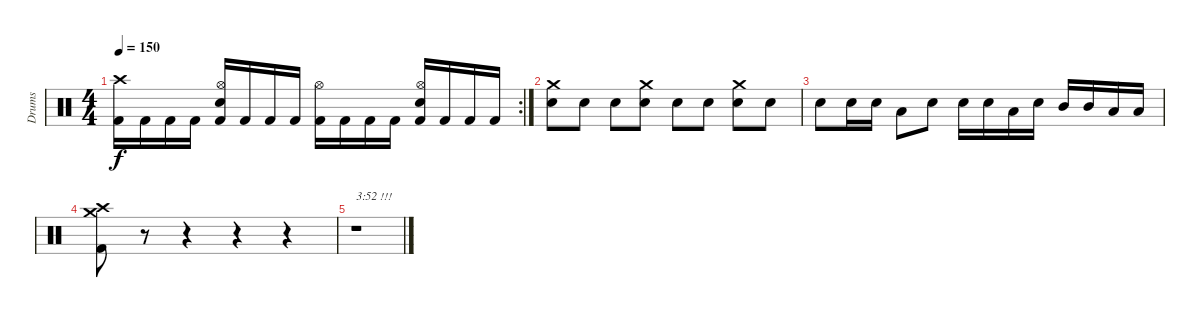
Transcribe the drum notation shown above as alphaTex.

\track ("Drums" "Drums") {instrument percussion}
\staff {score}
\articulation defaults
\rc 2
\ts (4 4)
\tempo 150
\clef neutral
\ks c
("Crash high (hit)" "Kick (hit) 2").16{dy f} "Kick (hit) 2".16 "Kick (hit) 2".16 "Kick (hit) 2".16 ("Hi-Hat (open)" "Snare (hit) 2" "Kick (hit) 2").16 "Kick (hit) 2".16 "Kick (hit) 2".16 "Kick (hit) 2".16 ("Hi-Hat (open)" "Kick (hit) 2").16 "Kick (hit) 2".16 "Kick (hit) 2".16 "Kick (hit) 2".16 ("Hi-Hat (open)" "Snare (hit) 2" "Kick (hit) 2").16 "Kick (hit) 2".16 "Kick (hit) 2".16 "Kick (hit) 2".16 |
("Crash medium (hit)" "Snare (hit) 2").8 "Snare (hit) 2".8 "Snare (hit) 2".8 ("Crash medium (hit)" "Snare (hit) 2").8 "Snare (hit) 2".8 "Snare (hit) 2".8 ("Crash medium (hit)" "Snare (hit) 2").8 "Snare (hit) 2".8 |
"Snare (hit) 2".8 "Snare (hit) 2".16 "Snare (hit) 2".16 "Low Tom (hit)".8 "Snare (hit) 2".8 "Snare (hit) 2".16 "Snare (hit) 2".16 "Low Tom (hit)".16 "Snare (hit) 2".16 "Mid Tom (hit)".16 "Mid Tom (hit)".16 "Low Tom (hit)".16 "Low Tom (hit)".16 |
("Crash medium (hit)" "Crash high (hit)" "Kick (hit) 2").8 r.8 r.4 r.4 r.4 |
r.1{txt "3:52 !!!"}
